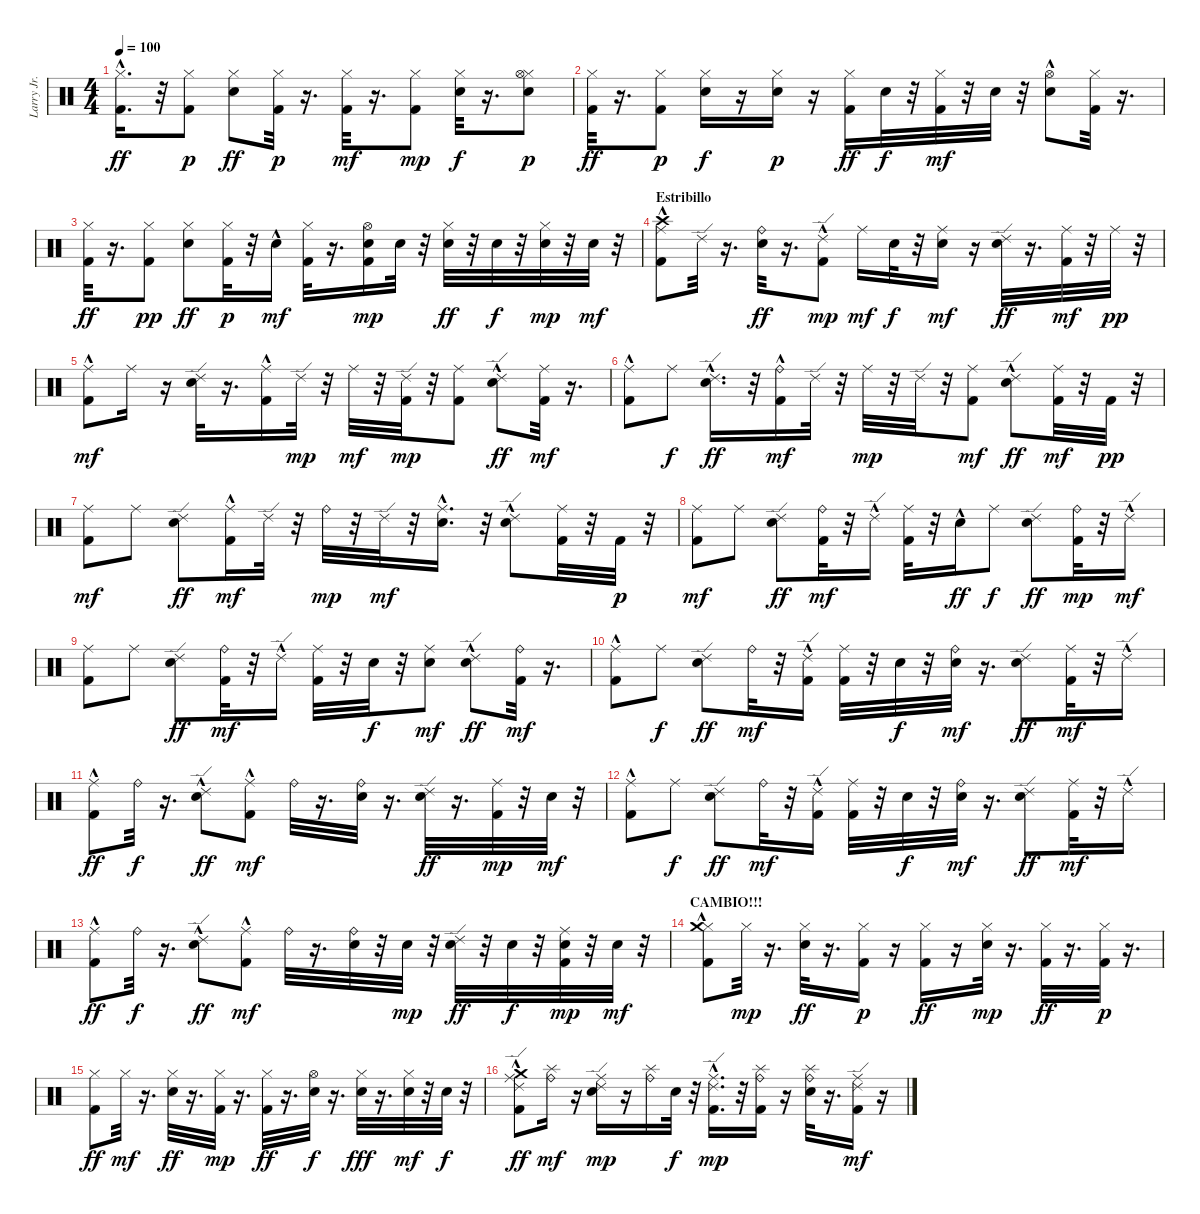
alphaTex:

\track ("Larry Jr." "Larry Jr.") {instrument percussion}
\staff {score}
\articulation defaults
\ts (4 4)
\tempo 100
\clef neutral
\ks c
("Kick (hit) 2"{hac} "Hi-Hat (closed)").16{d dy ff} r.32 ("Kick (hit) 2" "Hi-Hat (closed)").8{dy p} ("Electric Snare (hit)" "Hi-Hat (closed)").8{dy ff} ("Kick (hit) 2" "Hi-Hat (closed)").32{dy p} r.16{d} ("Kick (hit) 2" "Hi-Hat (closed)").32{dy mf} r.16{d} ("Kick (hit) 2" "Hi-Hat (closed)").8{dy mp} ("Electric Snare (hit)" "Hi-Hat (closed)").32{dy f} r.16{d} ("Electric Snare (hit)" "Hi-Hat (closed)" "Hi-Hat (open)").8{dy p} |
("Kick (hit) 2" "Hi-Hat (closed)").32{dy ff} r.16{d} ("Kick (hit) 2" "Hi-Hat (closed)").8{dy p} ("Electric Snare (hit)" "Hi-Hat (closed)").16{dy f} r.16 ("Electric Snare (hit)" "Hi-Hat (closed)").16{dy p} r.16 ("Kick (hit) 2" "Hi-Hat (closed)").16{dy ff} "Electric Snare (hit)".32{dy f} r.32 ("Kick (hit) 2" "Hi-Hat (closed)").32{dy mf} r.32 "Electric Snare (hit)".32 r.32 ("Electric Snare (hit)"{hac} "Hi-Hat (open)").8 ("Kick (hit) 2" "Hi-Hat (closed)").32 r.16{d} |
("Kick (hit) 2" "Hi-Hat (closed)").32{dy ff} r.16{d} ("Kick (hit) 2" "Hi-Hat (closed)").8{dy pp} ("Electric Snare (hit)" "Hi-Hat (closed)").8{dy ff} ("Kick (hit) 2" "Hi-Hat (closed)").32{dy p} r.32 "Electric Snare (hit)"{hac}.16{dy mf} ("Kick (hit) 2" "Hi-Hat (closed)").32 r.16{d} ("Kick (hit) 2" "Electric Snare (hit)" "Hi-Hat (open)").16{dy mp} "Electric Snare (hit)".32 r.32 ("Electric Snare (hit)" "Hi-Hat (closed)").32{dy ff} r.32 "Electric Snare (hit)".32{dy f} r.32 ("Electric Snare (hit)" "Hi-Hat (closed)").32{dy mp} r.32 "Electric Snare (hit)".32{dy mf} r.32 |
\section ("" "Estribillo")
("Kick (hit) 2"{hac} "Crash high (hit)" "Ride (middle)").8 "Ride (edge) 2".32 r.16{d} ("Electric Snare (hit)" "Ride (bell)").32{dy ff} r.16{d} ("Kick (hit) 2"{hac} "Ride (edge) 2").8{dy mp} "Ride (middle)".16{dy mf} "Electric Snare (hit)".32{dy f} r.32 ("Electric Snare (hit)" "Ride (middle)").16{dy mf} r.16 ("Electric Snare (hit)" "Ride (edge) 2").32{dy ff} r.16{d} ("Kick (hit) 2" "Ride (middle)").32{dy mf} r.32 "Ride (middle)".32{dy pp} r.32 |
("Kick (hit) 2"{hac} "Ride (middle)").8{dy mf} "Ride (middle)".16 r.16 ("Electric Snare (hit)" "Ride (edge) 2").32 r.16{d} ("Kick (hit) 2"{hac} "Ride (middle)").16 "Ride (edge) 2".32{dy mp} r.32 "Ride (middle)".32{dy mf} r.32 ("Kick (hit) 2" "Ride (edge) 2").32{dy mp} r.32 ("Kick (hit) 2" "Ride (middle)").8 ("Electric Snare (hit)" "Ride (edge) 2"{hac}).8{dy ff} ("Kick (hit) 2" "Ride (middle)").32{dy mf} r.16{d} |
("Kick (hit) 2"{hac} "Ride (middle)").8 "Ride (middle)".8{dy f} ("Electric Snare (hit)" "Ride (edge) 2"{hac}).16{d dy ff} r.32 ("Kick (hit) 2"{hac} "Ride (bell)").16{dy mf} "Ride (edge) 2".32 r.32 "Ride (middle)".32{dy mp} r.32 "Ride (edge) 2".32 r.32 ("Kick (hit) 2" "Ride (middle)").8{dy mf} ("Electric Snare (hit)" "Ride (edge) 2"{hac}).8{dy ff} ("Kick (hit) 2" "Ride (middle)").32{dy mf} r.32 "Kick (hit) 2".32{dy pp} r.32 |
("Kick (hit) 2" "Ride (middle)").8{dy mf} "Ride (middle)".8 ("Electric Snare (hit)" "Ride (edge) 2").8{dy ff} ("Kick (hit) 2"{hac} "Ride (middle)").16{dy mf} "Ride (edge) 2".32 r.32 "Ride (bell)".32{dy mp} r.32 "Ride (edge) 2".32{dy mf} r.32 ("Electric Snare (hit)" "Ride (middle)"{hac}).16{d} r.32 ("Electric Snare (hit)" "Ride (edge) 2"{hac}).8 ("Kick (hit) 2" "Ride (middle)").32 r.32 "Kick (hit) 2".32{dy p} r.32 |
("Kick (hit) 2" "Ride (middle)").8{dy mf} "Ride (middle)".8 ("Electric Snare (hit)" "Ride (edge) 2").8{dy ff} ("Kick (hit) 2" "Ride (bell)").32{dy mf} r.32 "Ride (edge) 2"{hac}.16 ("Kick (hit) 2" "Ride (middle)").32 r.32 "Electric Snare (hit)"{hac}.16{dy ff} "Ride (middle)".8{dy f} ("Electric Snare (hit)" "Ride (edge) 2").8{dy ff} ("Kick (hit) 2" "Ride (bell)").32{dy mp} r.32 "Ride (edge) 2"{hac}.16{dy mf} |
("Kick (hit) 2" "Ride (middle)").8 "Ride (middle)".8 ("Electric Snare (hit)" "Ride (edge) 2").8{dy ff} ("Kick (hit) 2" "Ride (bell)").32{dy mf} r.32 "Ride (edge) 2"{hac}.16 ("Kick (hit) 2" "Ride (middle)").32 r.32 "Electric Snare (hit)".32{dy f} r.32 ("Electric Snare (hit)" "Ride (middle)").8{dy mf} ("Electric Snare (hit)" "Ride (edge) 2"{hac}).8{dy ff} ("Kick (hit) 2" "Ride (bell)").32{dy mf} r.16{d} |
("Kick (hit) 2"{hac} "Ride (middle)").8 "Ride (middle)".8{dy f} ("Electric Snare (hit)" "Ride (edge) 2").8{dy ff} "Ride (bell)".32{dy mf} r.32 ("Kick (hit) 2" "Ride (edge) 2"{hac}).16 ("Kick (hit) 2" "Ride (middle)").32 r.32 "Electric Snare (hit)".32{dy f} r.32 ("Electric Snare (hit)" "Ride (bell)").32{dy mf} r.16{d} ("Electric Snare (hit)" "Ride (edge) 2").8{dy ff} ("Kick (hit) 2" "Ride (middle)").32{dy mf} r.32 "Ride (edge) 2"{hac}.16 |
("Kick (hit) 2"{hac} "Ride (middle)").8{dy ff} "Ride (bell)".32{dy f} r.16{d} ("Electric Snare (hit)" "Ride (edge) 2"{hac}).8{dy ff} ("Kick (hit) 2"{hac} "Ride (middle)").8{dy mf} "Ride (bell)".32 r.16{d} ("Electric Snare (hit)" "Ride (bell)").32 r.16{d} ("Electric Snare (hit)" "Ride (edge) 2").32{dy ff} r.16{d} ("Kick (hit) 2" "Ride (middle)").32{dy mp} r.32 "Electric Snare (hit)".32{dy mf} r.32 |
("Kick (hit) 2"{hac} "Ride (middle)").8 "Ride (middle)".8{dy f} ("Electric Snare (hit)" "Ride (edge) 2").8{dy ff} "Ride (bell)".32{dy mf} r.32 ("Kick (hit) 2" "Ride (edge) 2"{hac}).16 ("Kick (hit) 2" "Ride (middle)").32 r.32 "Electric Snare (hit)".32{dy f} r.32 ("Electric Snare (hit)" "Ride (bell)").32{dy mf} r.16{d} ("Electric Snare (hit)" "Ride (edge) 2").8{dy ff} ("Kick (hit) 2" "Ride (middle)").32{dy mf} r.32 "Ride (edge) 2"{hac}.16 |
("Kick (hit) 2"{hac} "Ride (middle)").8{dy ff} "Ride (bell)".32{dy f} r.16{d} ("Electric Snare (hit)" "Ride (edge) 2"{hac}).8{dy ff} ("Kick (hit) 2"{hac} "Ride (middle)").8{dy mf} "Ride (bell)".32 r.16{d} ("Electric Snare (hit)" "Ride (bell)").32 r.32 "Electric Snare (hit)".32{dy mp} r.32 ("Electric Snare (hit)" "Ride (edge) 2").32{dy ff} r.32 "Electric Snare (hit)".32{dy f} r.32 ("Kick (hit) 2" "Electric Snare (hit)" "Ride (middle)").32{dy mp} r.32 "Electric Snare (hit)".32{dy mf} r.32 |
\section ("" "CAMBIO!!!")
("Kick (hit) 2"{hac} "Hi-Hat (closed)" "Crash medium (hit)").8 "Hi-Hat (closed)".32{dy mp} r.16{d} ("Electric Snare (hit)" "Hi-Hat (closed)").32{dy ff} r.16{d} ("Kick (hit) 2" "Hi-Hat (closed)").16{dy p} r.16 ("Kick (hit) 2" "Hi-Hat (closed)").16{dy ff} r.16 ("Electric Snare (hit)" "Hi-Hat (closed)").32{dy mp} r.16{d} ("Kick (hit) 2" "Hi-Hat (closed)").32{dy ff} r.16{d} ("Kick (hit) 2" "Hi-Hat (closed)").32{dy p} r.16{d} |
("Kick (hit) 2" "Hi-Hat (closed)").8{dy ff} "Hi-Hat (closed)".32{dy mf} r.16{d} ("Electric Snare (hit)" "Hi-Hat (closed)").32{dy ff} r.16{d} ("Kick (hit) 2" "Hi-Hat (closed)").32{dy mp} r.16{d} ("Kick (hit) 2" "Hi-Hat (closed)").32{dy ff} r.16{d} ("Electric Snare (hit)" "Hi-Hat (open)").32{dy f} r.16{d} ("Electric Snare (hit)" "Hi-Hat (closed)").32{dy fff} r.16{d} ("Electric Snare (hit)" "Hi-Hat (closed)").32{dy mf} r.32 "Electric Snare (hit)".32{dy f} r.32 |
("Kick (hit) 2"{hac} "Ride (middle)" "Crash medium (hit)" "Ride (edge) 2").8{dy ff} ("Ride (bell)" "Splash (hit)").16{dy mf} r.16 ("Electric Snare (hit)" "Ride (middle)" "Ride (edge) 2").16{dy mp} r.16 ("Ride (bell)" "Splash (hit)").16 "Electric Snare (hit)".32{dy f} r.32 ("Kick (hit) 2" "Ride (middle)" "Ride (edge) 2"{hac}).16{d dy mp} r.32 ("Kick (hit) 2" "Ride (bell)" "Splash (hit)").16 r.16 ("Electric Snare (hit)" "Ride (bell)" "Splash (hit)").32 r.16{d} ("Kick (hit) 2" "Ride (middle)" "Ride (edge) 2").16{dy mf} r.16
